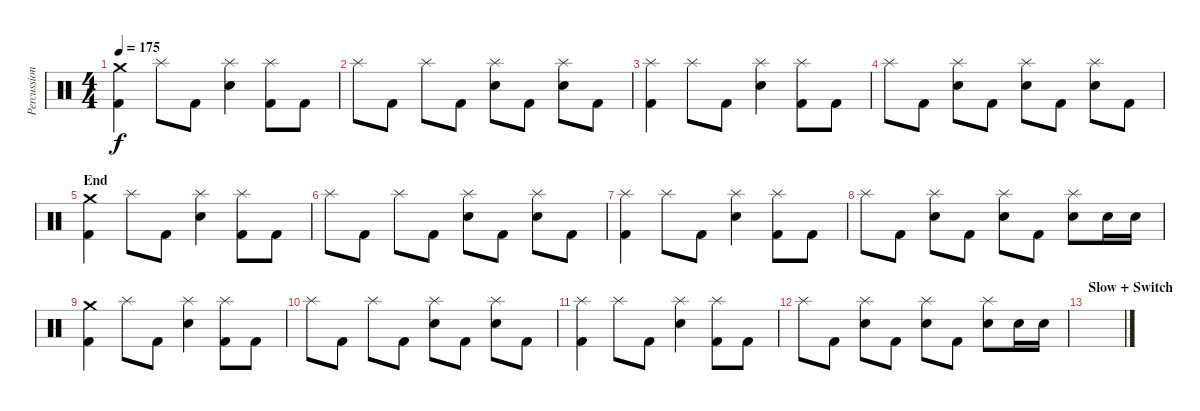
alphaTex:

\track ("Percussion" "Percussion") {instrument percussion}
\staff {score}
\articulation defaults
\ts (4 4)
\tempo 175
\clef neutral
\ks c
("Crash medium (hit)" "Kick (hit) 2").4{dy f volume 9} "Splash (hit)".8 "Kick (hit) 2".8 ("Splash (hit)" "Electric Snare (hit)").4 ("Splash (hit)" "Kick (hit) 2").8 "Kick (hit) 2".8 |
"Splash (hit)".8 "Kick (hit) 2".8 "Splash (hit)".8 "Kick (hit) 2".8 ("Splash (hit)" "Electric Snare (hit)").8 "Kick (hit) 2".8 ("Splash (hit)" "Electric Snare (hit)").8 "Kick (hit) 2".8 |
("Splash (hit)" "Kick (hit) 2").4 "Splash (hit)".8 "Kick (hit) 2".8 ("Splash (hit)" "Electric Snare (hit)").4 ("Splash (hit)" "Kick (hit) 2").8 "Kick (hit) 2".8 |
"Splash (hit)".8 "Kick (hit) 2".8 ("Splash (hit)" "Electric Snare (hit)").8 "Kick (hit) 2".8 ("Splash (hit)" "Electric Snare (hit)").8 "Kick (hit) 2".8 ("Splash (hit)" "Electric Snare (hit)").8 "Kick (hit) 2".8 |
\section ("" "End")
("Crash medium (hit)" "Kick (hit) 2").4{volume 4} "Splash (hit)".8 "Kick (hit) 2".8 ("Splash (hit)" "Electric Snare (hit)").4 ("Splash (hit)" "Kick (hit) 2").8 "Kick (hit) 2".8 |
"Splash (hit)".8 "Kick (hit) 2".8 "Splash (hit)".8 "Kick (hit) 2".8 ("Splash (hit)" "Electric Snare (hit)").8 "Kick (hit) 2".8 ("Splash (hit)" "Electric Snare (hit)").8 "Kick (hit) 2".8 |
("Splash (hit)" "Kick (hit) 2").4 "Splash (hit)".8 "Kick (hit) 2".8 ("Splash (hit)" "Electric Snare (hit)").4 ("Splash (hit)" "Kick (hit) 2").8 "Kick (hit) 2".8 |
"Splash (hit)".8 "Kick (hit) 2".8 ("Splash (hit)" "Electric Snare (hit)").8 "Kick (hit) 2".8 ("Splash (hit)" "Electric Snare (hit)").8 "Kick (hit) 2".8 ("Splash (hit)" "Electric Snare (hit)").8 "Electric Snare (hit)".16 "Electric Snare (hit)".16 |
("Crash medium (hit)" "Kick (hit) 2").4{volume 0} "Splash (hit)".8 "Kick (hit) 2".8 ("Splash (hit)" "Electric Snare (hit)").4 ("Splash (hit)" "Kick (hit) 2").8 "Kick (hit) 2".8 |
"Splash (hit)".8 "Kick (hit) 2".8 "Splash (hit)".8 "Kick (hit) 2".8 ("Splash (hit)" "Electric Snare (hit)").8 "Kick (hit) 2".8 ("Splash (hit)" "Electric Snare (hit)").8 "Kick (hit) 2".8 |
("Splash (hit)" "Kick (hit) 2").4 "Splash (hit)".8 "Kick (hit) 2".8 ("Splash (hit)" "Electric Snare (hit)").4 ("Splash (hit)" "Kick (hit) 2").8 "Kick (hit) 2".8 |
"Splash (hit)".8 "Kick (hit) 2".8 ("Splash (hit)" "Electric Snare (hit)").8 "Kick (hit) 2".8 ("Splash (hit)" "Electric Snare (hit)").8 "Kick (hit) 2".8 ("Splash (hit)" "Electric Snare (hit)").8 "Electric Snare (hit)".16 "Electric Snare (hit)".16 |
\section ("" "Slow + Switch")
